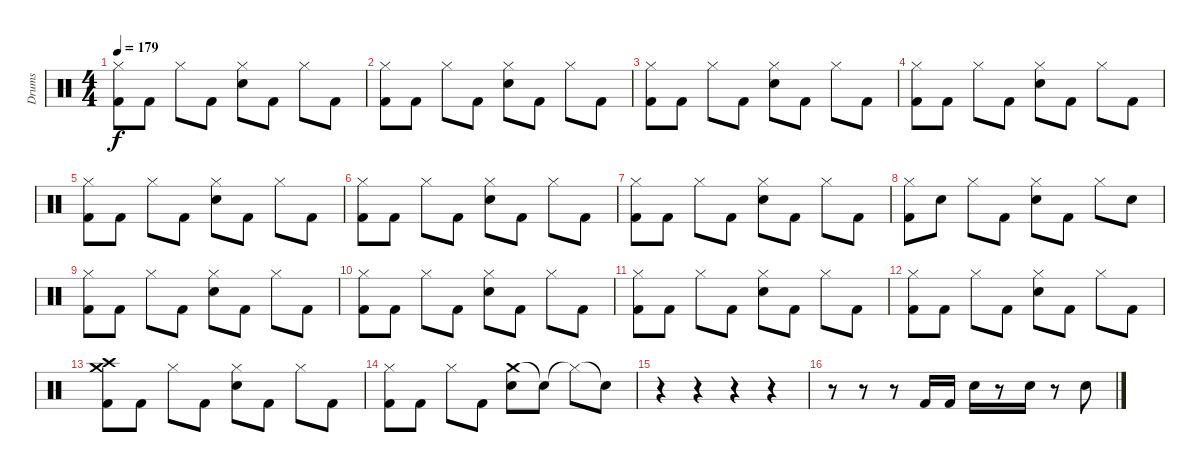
\track ("Drums" "Drums") {instrument percussion}
\staff {score}
\articulation defaults
\ts (4 4)
\tempo 179
\clef neutral
\ks c
("Hi-Hat (closed)" "Kick (hit) 2").8{dy f volume 16} "Kick (hit) 2".8 "Hi-Hat (closed)".8 "Kick (hit) 2".8 ("Hi-Hat (closed)" "Electric Snare (hit)").8 "Kick (hit) 2".8 "Hi-Hat (closed)".8 "Kick (hit) 2".8 |
("Hi-Hat (closed)" "Kick (hit) 2").8 "Kick (hit) 2".8 "Hi-Hat (closed)".8 "Kick (hit) 2".8 ("Hi-Hat (closed)" "Electric Snare (hit)").8 "Kick (hit) 2".8 "Hi-Hat (closed)".8 "Kick (hit) 2".8 |
("Hi-Hat (closed)" "Kick (hit) 2").8 "Kick (hit) 2".8 "Hi-Hat (closed)".8 "Kick (hit) 2".8 ("Hi-Hat (closed)" "Electric Snare (hit)").8 "Kick (hit) 2".8 "Hi-Hat (closed)".8 "Kick (hit) 2".8 |
("Hi-Hat (closed)" "Kick (hit) 2").8 "Kick (hit) 2".8 "Hi-Hat (closed)".8 "Kick (hit) 2".8 ("Hi-Hat (closed)" "Electric Snare (hit)").8 "Kick (hit) 2".8 "Hi-Hat (closed)".8 "Kick (hit) 2".8 |
("Hi-Hat (closed)" "Kick (hit) 2").8 "Kick (hit) 2".8 "Hi-Hat (closed)".8 "Kick (hit) 2".8 ("Hi-Hat (closed)" "Electric Snare (hit)").8 "Kick (hit) 2".8 "Hi-Hat (closed)".8 "Kick (hit) 2".8 |
("Hi-Hat (closed)" "Kick (hit) 2").8 "Kick (hit) 2".8 "Hi-Hat (closed)".8 "Kick (hit) 2".8 ("Hi-Hat (closed)" "Electric Snare (hit)").8 "Kick (hit) 2".8 "Hi-Hat (closed)".8 "Kick (hit) 2".8 |
("Hi-Hat (closed)" "Kick (hit) 2").8 "Kick (hit) 2".8 "Hi-Hat (closed)".8 "Kick (hit) 2".8 ("Hi-Hat (closed)" "Electric Snare (hit)").8 "Kick (hit) 2".8 "Hi-Hat (closed)".8 "Kick (hit) 2".8 |
("Hi-Hat (closed)" "Kick (hit) 2").8 "Electric Snare (hit)".8 "Hi-Hat (closed)".8 "Kick (hit) 2".8 ("Hi-Hat (closed)" "Electric Snare (hit)").8 "Kick (hit) 2".8 "Hi-Hat (closed)".8 "Electric Snare (hit)".8 |
("Hi-Hat (closed)" "Kick (hit) 2").8 "Kick (hit) 2".8 "Hi-Hat (closed)".8 "Kick (hit) 2".8 ("Hi-Hat (closed)" "Electric Snare (hit)").8 "Kick (hit) 2".8 "Hi-Hat (closed)".8 "Kick (hit) 2".8 |
("Hi-Hat (closed)" "Kick (hit) 2").8 "Kick (hit) 2".8 "Hi-Hat (closed)".8 "Kick (hit) 2".8 ("Hi-Hat (closed)" "Electric Snare (hit)").8 "Kick (hit) 2".8 "Hi-Hat (closed)".8 "Kick (hit) 2".8 |
("Hi-Hat (closed)" "Kick (hit) 2").8 "Kick (hit) 2".8 "Hi-Hat (closed)".8 "Kick (hit) 2".8 ("Hi-Hat (closed)" "Electric Snare (hit)").8 "Kick (hit) 2".8 "Hi-Hat (closed)".8 "Kick (hit) 2".8 |
("Hi-Hat (closed)" "Kick (hit) 2").8 "Kick (hit) 2".8 "Hi-Hat (closed)".8 "Kick (hit) 2".8 ("Hi-Hat (closed)" "Electric Snare (hit)").8 "Kick (hit) 2".8 "Hi-Hat (closed)".8 "Kick (hit) 2".8 |
("Crash high (hit)" "Crash medium (hit)" "Kick (hit) 2").8 "Kick (hit) 2".8 "Hi-Hat (closed)".8 "Kick (hit) 2".8 ("Hi-Hat (closed)" "Electric Snare (hit)").8 "Kick (hit) 2".8 "Hi-Hat (closed)".8 "Kick (hit) 2".8 |
("Hi-Hat (closed)" "Kick (hit) 2").8 "Kick (hit) 2".8 "Hi-Hat (closed)".8 "Kick (hit) 2".8 ("Crash medium (hit)" "Electric Snare (hit)").8 "Snare (hit)"{t}.8 "Hi-Hat (closed)"{t}.8 "Snare (hit)"{t}.8 |
r.4 r.4 r.4 r.4 |
r.8 r.8 r.8 "Kick (hit) 2".16 "Kick (hit) 2".16 "Electric Snare (hit)".16 r.8 "Electric Snare (hit)".16 r.8 "Electric Snare (hit)".8
